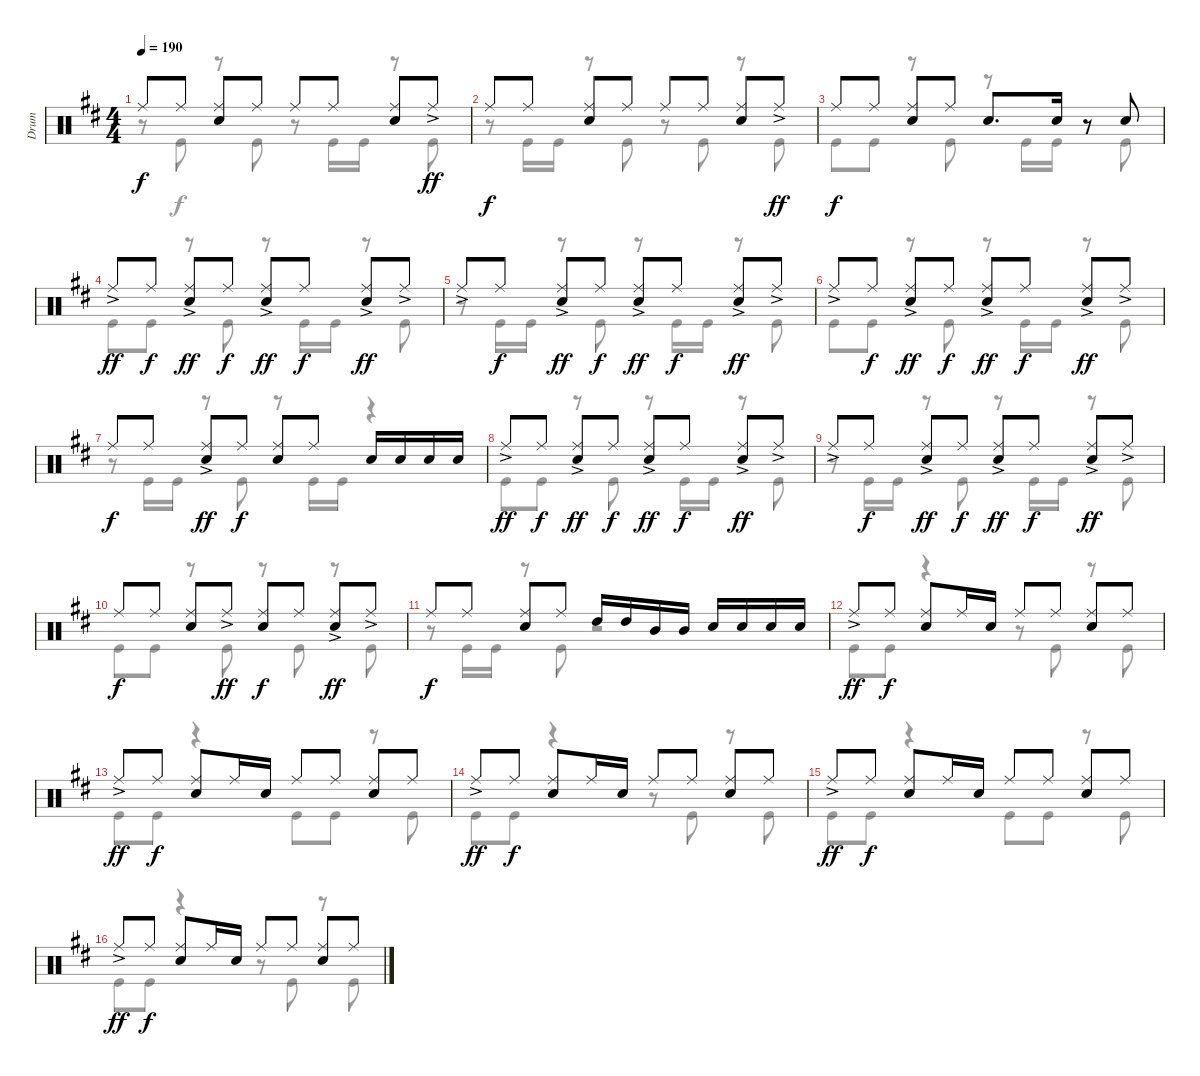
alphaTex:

\track ("Drum" "Drum") {instrument percussion}
\staff {score}
\articulation defaults
\voice
\ts (4 4)
\tempo 190
\clef neutral
\ks d "Ride (middle)".8{dy f} "Ride (middle)".8
("Ride (middle)" "Snare (hit) 2").8 "Ride (middle)".8 "Ride (middle)".8 "Ride (middle)".8 ("Ride (middle)" "Snare (hit) 2").8 "Ride (middle)"{ac}.8{dy ff} |
"Ride (middle)".8{dy f} "Ride (middle)".8 ("Ride (middle)" "Snare (hit) 2").8 "Ride (middle)".8 "Ride (middle)".8 "Ride (middle)".8 ("Ride (middle)" "Snare (hit) 2").8 "Ride (middle)"{ac}.8{dy ff} |
"Ride (middle)".8{dy f} "Ride (middle)".8 ("Ride (middle)" "Snare (hit) 2").8 "Ride (middle)".8 "Snare (hit) 2".8{d} "Snare (hit) 2".16 r.8 "Snare (hit) 2".8 |
"Ride (middle)"{ac}.8{dy ff} "Ride (middle)".8{dy f} ("Ride (middle)"{ac} "Snare (hit) 2").8{dy ff} "Ride (middle)".8{dy f} ("Ride (middle)"{ac} "Snare (hit) 2").8{dy ff} "Ride (middle)".8{dy f} ("Ride (middle)"{ac} "Snare (hit) 2").8{dy ff} "Ride (middle)"{ac}.8 |
"Ride (middle)"{ac}.8 "Ride (middle)".8{dy f} ("Ride (middle)"{ac} "Snare (hit) 2").8{dy ff} "Ride (middle)".8{dy f} ("Ride (middle)"{ac} "Snare (hit) 2").8{dy ff} "Ride (middle)".8{dy f} ("Ride (middle)"{ac} "Snare (hit) 2").8{dy ff} "Ride (middle)"{ac}.8 |
"Ride (middle)"{ac}.8 "Ride (middle)".8{dy f} ("Ride (middle)"{ac} "Snare (hit) 2").8{dy ff} "Ride (middle)".8{dy f} ("Ride (middle)"{ac} "Snare (hit) 2").8{dy ff} "Ride (middle)".8{dy f} ("Ride (middle)"{ac} "Snare (hit) 2").8{dy ff} "Ride (middle)"{ac}.8 |
"Ride (middle)".8{dy f} "Ride (middle)".8 ("Ride (middle)"{ac} "Snare (hit) 2").8{dy ff} "Ride (middle)".8{dy f} ("Ride (middle)" "Snare (hit) 2").8 "Ride (middle)".8 "Snare (hit) 2".16 "Snare (hit) 2".16 "Snare (hit) 2".16 "Snare (hit) 2".16 |
"Ride (middle)"{ac}.8{dy ff} "Ride (middle)".8{dy f} ("Ride (middle)"{ac} "Snare (hit) 2").8{dy ff} "Ride (middle)".8{dy f} ("Ride (middle)"{ac} "Snare (hit) 2").8{dy ff} "Ride (middle)".8{dy f} ("Ride (middle)"{ac} "Snare (hit) 2").8{dy ff} "Ride (middle)"{ac}.8 |
"Ride (middle)"{ac}.8 "Ride (middle)".8{dy f} ("Ride (middle)"{ac} "Snare (hit) 2").8{dy ff} "Ride (middle)".8{dy f} ("Ride (middle)"{ac} "Snare (hit) 2").8{dy ff} "Ride (middle)".8{dy f} ("Ride (middle)"{ac} "Snare (hit) 2").8{dy ff} "Ride (middle)"{ac}.8 |
"Ride (middle)".8{dy f} "Ride (middle)".8 ("Ride (middle)" "Snare (hit) 2").8 "Ride (middle)"{ac}.8{dy ff} ("Ride (middle)" "Snare (hit) 2").8{dy f} "Ride (middle)".8 ("Ride (middle)"{ac} "Snare (hit) 2").8{dy ff} "Ride (middle)"{ac}.8 |
"Ride (middle)".8{dy f} "Ride (middle)".8 ("Ride (middle)" "Snare (hit) 2").8 "Ride (middle)".8 "High Tom (hit)".16 "High Tom (hit)".16 "Mid Tom (hit)".16 "Mid Tom (hit)".16 "Snare (hit) 2".16 "Snare (hit) 2".16 "Snare (hit) 2".16 "Snare (hit) 2".16 |
"Ride (middle)"{ac}.8{dy ff} "Ride (middle)".8{dy f} ("Ride (middle)" "Snare (hit) 2").8 "Ride (middle)".16 "Snare (hit) 2".16 "Ride (middle)".8 "Ride (middle)".8 ("Ride (middle)" "Snare (hit) 2").8 "Ride (middle)".8 |
"Ride (middle)"{ac}.8{dy ff} "Ride (middle)".8{dy f} ("Ride (middle)" "Snare (hit) 2").8 "Ride (middle)".16 "Snare (hit) 2".16 "Ride (middle)".8 "Ride (middle)".8 ("Ride (middle)" "Snare (hit) 2").8 "Ride (middle)".8 |
"Ride (middle)"{ac}.8{dy ff} "Ride (middle)".8{dy f} ("Ride (middle)" "Snare (hit) 2").8 "Ride (middle)".16 "Snare (hit) 2".16 "Ride (middle)".8 "Ride (middle)".8 ("Ride (middle)" "Snare (hit) 2").8 "Ride (middle)".8 |
"Ride (middle)"{ac}.8{dy ff} "Ride (middle)".8{dy f} ("Ride (middle)" "Snare (hit) 2").8 "Ride (middle)".16 "Snare (hit) 2".16 "Ride (middle)".8 "Ride (middle)".8 ("Ride (middle)" "Snare (hit) 2").8 "Ride (middle)".8 |
"Ride (middle)"{ac}.8{dy ff} "Ride (middle)".8{dy f} ("Ride (middle)" "Snare (hit) 2").8 "Ride (middle)".16 "Snare (hit) 2".16 "Ride (middle)".8 "Ride (middle)".8 ("Ride (middle)" "Snare (hit) 2").8 "Ride (middle)".8
\voice
\clef neutral
\ottava regular
\simile none
\ks d
r.8{dy f} "Kick (hit)".8 r.8 "Kick (hit)".8 r.8 "Kick (hit)".16 "Kick (hit)".16 r.8 "Kick (hit)".8 |
r.8 "Kick (hit)".16 "Kick (hit)".16 r.8 "Kick (hit)".8 r.8 "Kick (hit)".8 r.8 "Kick (hit)".8 |
"Kick (hit)".8 "Kick (hit)".8 r.8 "Kick (hit)".8 r.8 "Kick (hit)".16 "Kick (hit)".16 r.8 "Kick (hit)".8 |
"Kick (hit)".8 "Kick (hit)".8 r.8 "Kick (hit)".8 r.8 "Kick (hit)".16 "Kick (hit)".16 r.8 "Kick (hit)".8 |
r.8 "Kick (hit)".16 "Kick (hit)".16 r.8 "Kick (hit)".8 r.8 "Kick (hit)".16 "Kick (hit)".16 r.8 "Kick (hit)".8 |
"Kick (hit)".8 "Kick (hit)".8 r.8 "Kick (hit)".8 r.8 "Kick (hit)".16 "Kick (hit)".16 r.8 "Kick (hit)".8 |
r.8 "Kick (hit)".16 "Kick (hit)".16 r.8 "Kick (hit)".8 r.8 "Kick (hit)".16 "Kick (hit)".16 r.4 |
"Kick (hit)".8 "Kick (hit)".8 r.8 "Kick (hit)".8 r.8 "Kick (hit)".16 "Kick (hit)".16 r.8 "Kick (hit)".8 |
r.8 "Kick (hit)".16 "Kick (hit)".16 r.8 "Kick (hit)".8 r.8 "Kick (hit)".16 "Kick (hit)".16 r.8 "Kick (hit)".8 |
"Kick (hit)".8 "Kick (hit)".8 r.8 "Kick (hit)".8 r.8 "Kick (hit)".8 r.8 "Kick (hit)".8 |
r.8 "Kick (hit)".16 "Kick (hit)".16 r.8 "Kick (hit)".8 r.2 |
"Kick (hit)".8 "Kick (hit)".8 r.4 r.8 "Kick (hit)".8 r.8 "Kick (hit)".8 |
"Kick (hit)".8 "Kick (hit)".8 r.4 "Kick (hit)".8 "Kick (hit)".8 r.8 "Kick (hit)".8 |
"Kick (hit)".8 "Kick (hit)".8 r.4 r.8 "Kick (hit)".8 r.8 "Kick (hit)".8 |
"Kick (hit)".8 "Kick (hit)".8 r.4 "Kick (hit)".8 "Kick (hit)".8 r.8 "Kick (hit)".8 |
"Kick (hit)".8 "Kick (hit)".8 r.4 r.8 "Kick (hit)".8 r.8 "Kick (hit)".8
